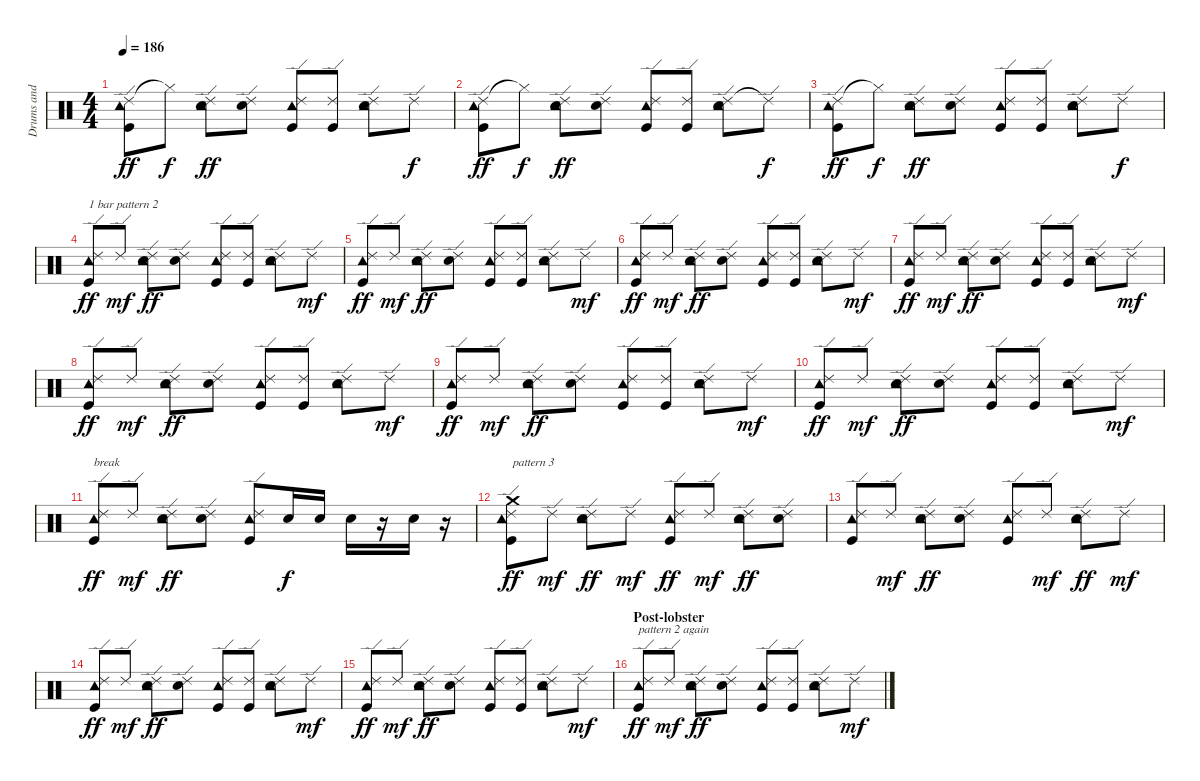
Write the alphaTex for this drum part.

\track ("Drums and Percs" "Drums and ") {instrument percussion}
\staff {score}
\articulation defaults
\ts (4 4)
\tempo 186
\clef neutral
\ks c
("Ride (edge) 2" "Tambourine (hit)" "Kick (hit)").8{dy ff} "Hi-Hat (closed)"{t}.8{dy f} ("Ride (edge) 2" "Tambourine (hit)" "Electric Snare (hit)").8{dy ff} ("Ride (edge) 2" "Electric Snare (hit)").8 ("Ride (edge) 2" "Tambourine (hit)" "Kick (hit)").8 ("Ride (edge) 2" "Kick (hit)").8 ("Ride (edge) 2" "Tambourine (hit)" "Electric Snare (hit)").8 "Ride (edge) 2".8{dy f} |
("Ride (edge) 2" "Tambourine (hit)" "Kick (hit)").8{dy ff} "Hi-Hat (closed)"{t}.8{dy f} ("Ride (edge) 2" "Tambourine (hit)" "Electric Snare (hit)").8{dy ff} ("Ride (edge) 2" "Electric Snare (hit)").8 ("Ride (edge) 2" "Tambourine (hit)" "Kick (hit)").8 ("Ride (edge) 2" "Kick (hit)").8 ("Ride (edge) 2" "Tambourine (hit)" "Electric Snare (hit)").8 "Ride (edge) 2"{t}.8{dy f} |
("Ride (edge) 2" "Tambourine (hit)" "Kick (hit)").8{dy ff} "Hi-Hat (closed)"{t}.8{dy f} ("Ride (edge) 2" "Tambourine (hit)" "Electric Snare (hit)").8{dy ff} ("Ride (edge) 2" "Electric Snare (hit)").8 ("Ride (edge) 2" "Tambourine (hit)" "Kick (hit)").8 ("Ride (edge) 2" "Kick (hit)").8 ("Ride (edge) 2" "Tambourine (hit)" "Electric Snare (hit)").8 "Ride (edge) 2".8{dy f} |
("Ride (edge) 2" "Tambourine (hit)" "Kick (hit)").8{txt "1 bar pattern 2" dy ff} "Ride (edge) 2".8{dy mf} ("Ride (edge) 2" "Tambourine (hit)" "Electric Snare (hit)").8{dy ff} ("Ride (edge) 2" "Electric Snare (hit)").8 ("Ride (edge) 2" "Tambourine (hit)" "Kick (hit)").8 ("Ride (edge) 2" "Kick (hit)").8 ("Ride (edge) 2" "Tambourine (hit)" "Electric Snare (hit)").8 "Ride (edge) 2".8{dy mf} |
("Ride (edge) 2" "Tambourine (hit)" "Kick (hit)").8{dy ff} "Ride (edge) 2".8{dy mf} ("Ride (edge) 2" "Tambourine (hit)" "Electric Snare (hit)").8{dy ff} ("Ride (edge) 2" "Electric Snare (hit)").8 ("Ride (edge) 2" "Tambourine (hit)" "Kick (hit)").8 ("Ride (edge) 2" "Kick (hit)").8 ("Ride (edge) 2" "Tambourine (hit)" "Electric Snare (hit)").8 "Ride (edge) 2".8{dy mf} |
("Ride (edge) 2" "Tambourine (hit)" "Kick (hit)").8{dy ff} "Ride (edge) 2".8{dy mf} ("Ride (edge) 2" "Tambourine (hit)" "Electric Snare (hit)").8{dy ff} ("Ride (edge) 2" "Electric Snare (hit)").8 ("Ride (edge) 2" "Tambourine (hit)" "Kick (hit)").8 ("Ride (edge) 2" "Kick (hit)").8 ("Ride (edge) 2" "Tambourine (hit)" "Electric Snare (hit)").8 "Ride (edge) 2".8{dy mf} |
("Ride (edge) 2" "Tambourine (hit)" "Kick (hit)").8{dy ff} "Ride (edge) 2".8{dy mf} ("Ride (edge) 2" "Tambourine (hit)" "Electric Snare (hit)").8{dy ff} ("Ride (edge) 2" "Electric Snare (hit)").8 ("Ride (edge) 2" "Tambourine (hit)" "Kick (hit)").8 ("Ride (edge) 2" "Kick (hit)").8 ("Ride (edge) 2" "Tambourine (hit)" "Electric Snare (hit)").8 "Ride (edge) 2".8{dy mf} |
("Ride (edge) 2" "Tambourine (hit)" "Kick (hit)").8{dy ff} "Ride (edge) 2".8{dy mf} ("Ride (edge) 2" "Tambourine (hit)" "Electric Snare (hit)").8{dy ff} ("Ride (edge) 2" "Electric Snare (hit)").8 ("Ride (edge) 2" "Tambourine (hit)" "Kick (hit)").8 ("Ride (edge) 2" "Kick (hit)").8 ("Ride (edge) 2" "Tambourine (hit)" "Electric Snare (hit)").8 "Ride (edge) 2".8{dy mf} |
("Ride (edge) 2" "Tambourine (hit)" "Kick (hit)").8{dy ff} "Ride (edge) 2".8{dy mf} ("Ride (edge) 2" "Tambourine (hit)" "Electric Snare (hit)").8{dy ff} ("Ride (edge) 2" "Electric Snare (hit)").8 ("Ride (edge) 2" "Tambourine (hit)" "Kick (hit)").8 ("Ride (edge) 2" "Kick (hit)").8 ("Ride (edge) 2" "Tambourine (hit)" "Electric Snare (hit)").8 "Ride (edge) 2".8{dy mf} |
("Ride (edge) 2" "Tambourine (hit)" "Kick (hit)").8{dy ff} "Ride (edge) 2".8{dy mf} ("Ride (edge) 2" "Tambourine (hit)" "Electric Snare (hit)").8{dy ff} ("Ride (edge) 2" "Electric Snare (hit)").8 ("Ride (edge) 2" "Tambourine (hit)" "Kick (hit)").8 ("Ride (edge) 2" "Kick (hit)").8 ("Ride (edge) 2" "Tambourine (hit)" "Electric Snare (hit)").8 "Ride (edge) 2".8{dy mf} |
("Ride (edge) 2" "Tambourine (hit)" "Kick (hit)").8{txt "break" dy ff} "Ride (edge) 2".8{dy mf} ("Ride (edge) 2" "Tambourine (hit)" "Electric Snare (hit)").8{dy ff} ("Ride (edge) 2" "Electric Snare (hit)").8 ("Ride (edge) 2" "Tambourine (hit)" "Kick (hit)").8 "Electric Snare (hit)".16{dy f} "Electric Snare (hit)".16 "Electric Snare (hit)".16 r.16 "Electric Snare (hit)".16 r.16 |
("Ride (edge) 2" "Tambourine (hit)" "Crash medium (hit)" "Kick (hit)").8{txt "pattern 3" dy ff} "Ride (edge) 2".8{dy mf} ("Ride (edge) 2" "Tambourine (hit)" "Electric Snare (hit)").8{dy ff} "Ride (edge) 2".8{dy mf} ("Ride (edge) 2" "Tambourine (hit)" "Kick (hit)").8{dy ff} "Ride (edge) 2".8{dy mf} ("Ride (edge) 2" "Tambourine (hit)" "Electric Snare (hit)").8{dy ff} ("Ride (edge) 2" "Electric Snare (hit)").8 |
("Ride (edge) 2" "Tambourine (hit)" "Kick (hit)").8 "Ride (edge) 2".8{dy mf} ("Ride (edge) 2" "Tambourine (hit)" "Electric Snare (hit)").8{dy ff} ("Ride (edge) 2" "Electric Snare (hit)").8 ("Ride (edge) 2" "Tambourine (hit)" "Kick (hit)").8 "Ride (edge) 2".8{dy mf} ("Ride (edge) 2" "Tambourine (hit)" "Electric Snare (hit)").8{dy ff} "Ride (edge) 2".8{dy mf} |
("Ride (edge) 2" "Tambourine (hit)" "Kick (hit)").8{dy ff} "Ride (edge) 2".8{dy mf} ("Ride (edge) 2" "Tambourine (hit)" "Electric Snare (hit)").8{dy ff} ("Ride (edge) 2" "Electric Snare (hit)").8 ("Ride (edge) 2" "Tambourine (hit)" "Kick (hit)").8 ("Ride (edge) 2" "Kick (hit)").8 ("Ride (edge) 2" "Tambourine (hit)" "Electric Snare (hit)").8 "Ride (edge) 2".8{dy mf} |
("Ride (edge) 2" "Tambourine (hit)" "Kick (hit)").8{dy ff} "Ride (edge) 2".8{dy mf} ("Ride (edge) 2" "Tambourine (hit)" "Electric Snare (hit)").8{dy ff} ("Ride (edge) 2" "Electric Snare (hit)").8 ("Ride (edge) 2" "Tambourine (hit)" "Kick (hit)").8 ("Ride (edge) 2" "Kick (hit)").8 ("Ride (edge) 2" "Tambourine (hit)" "Electric Snare (hit)").8 "Ride (edge) 2".8{dy mf} |
\section ("" "Post-lobster")
("Ride (edge) 2" "Tambourine (hit)" "Kick (hit)").8{txt "pattern 2 again" dy ff} "Ride (edge) 2".8{dy mf} ("Ride (edge) 2" "Tambourine (hit)" "Electric Snare (hit)").8{dy ff} ("Ride (edge) 2" "Electric Snare (hit)").8 ("Ride (edge) 2" "Tambourine (hit)" "Kick (hit)").8 ("Ride (edge) 2" "Kick (hit)").8 ("Ride (edge) 2" "Tambourine (hit)" "Electric Snare (hit)").8 "Ride (edge) 2".8{dy mf}
